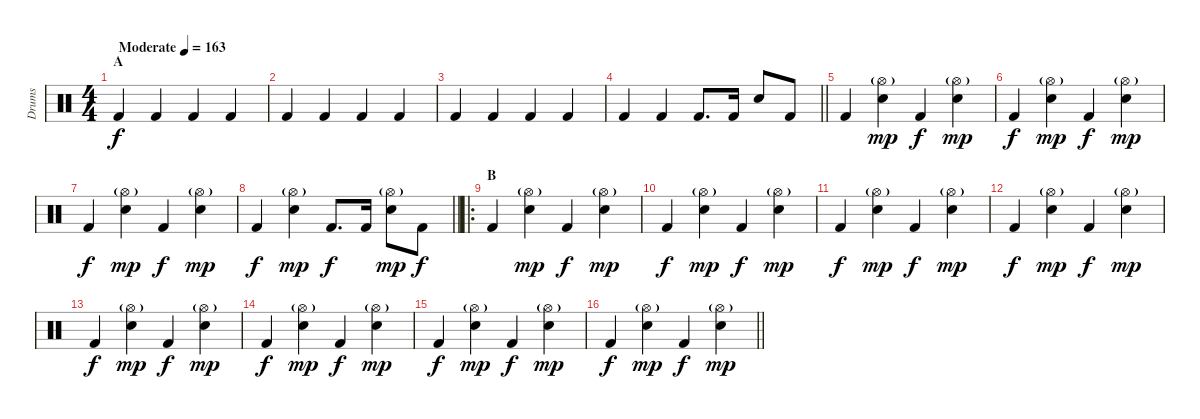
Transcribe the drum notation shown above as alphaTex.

\track ("Drums" "Drums") {instrument percussion}
\staff {score}
\articulation defaults
\ts (4 4)
\section ("" "A")
\tempo (163 "Moderate")
\clef neutral
\ks c "Kick (hit) 2".4{dy f} "Kick (hit) 2".4 "Kick (hit) 2".4 "Kick (hit) 2".4
|
"Kick (hit) 2".4 "Kick (hit) 2".4 "Kick (hit) 2".4 "Kick (hit) 2".4 |
"Kick (hit) 2".4 "Kick (hit) 2".4 "Kick (hit) 2".4 "Kick (hit) 2".4 |
\barLineRight lightlight "Kick (hit) 2".4 "Kick (hit) 2".4 "Kick (hit) 2".8{d} "Kick (hit) 2".16 "Snare (hit) 2".8 "Kick (hit) 2".8
|
\section ("" " ")
"Kick (hit) 2".4 ("Hi-Hat (open)"{g} "Snare (hit) 2").4{dy mp} "Kick (hit) 2".4{dy f} ("Hi-Hat (open)"{g} "Snare (hit) 2").4{dy mp} |
"Kick (hit) 2".4{dy f} ("Hi-Hat (open)"{g} "Snare (hit) 2").4{dy mp} "Kick (hit) 2".4{dy f} ("Hi-Hat (open)"{g} "Snare (hit) 2").4{dy mp} |
"Kick (hit) 2".4{dy f} ("Hi-Hat (open)"{g} "Snare (hit) 2").4{dy mp} "Kick (hit) 2".4{dy f} ("Hi-Hat (open)"{g} "Snare (hit) 2").4{dy mp} |
\barLineRight lightlight "Kick (hit) 2".4{dy f}
("Hi-Hat (open)"{g} "Snare (hit) 2").4{dy mp} "Kick (hit) 2".8{d dy f} "Kick (hit) 2".16 ("Hi-Hat (open)"{g} "Snare (hit) 2").8{dy mp} "Kick (hit) 2".8{dy f} |
\ro
\section ("" "B")
"Kick (hit) 2".4 ("Hi-Hat (open)"{g} "Snare (hit) 2").4{dy mp} "Kick (hit) 2".4{dy f} ("Hi-Hat (open)"{g} "Snare (hit) 2").4{dy mp} |
"Kick (hit) 2".4{dy f} ("Hi-Hat (open)"{g} "Snare (hit) 2").4{dy mp} "Kick (hit) 2".4{dy f} ("Hi-Hat (open)"{g} "Snare (hit) 2").4{dy mp} |
"Kick (hit) 2".4{dy f} ("Hi-Hat (open)"{g} "Snare (hit) 2").4{dy mp} "Kick (hit) 2".4{dy f} ("Hi-Hat (open)"{g} "Snare (hit) 2").4{dy mp} |
"Kick (hit) 2".4{dy f} ("Hi-Hat (open)"{g} "Snare (hit) 2").4{dy mp} "Kick (hit) 2".4{dy f} ("Hi-Hat (open)"{g} "Snare (hit) 2").4{dy mp} |
"Kick (hit) 2".4{dy f} ("Hi-Hat (open)"{g} "Snare (hit) 2").4{dy mp} "Kick (hit) 2".4{dy f} ("Hi-Hat (open)"{g} "Snare (hit) 2").4{dy mp} |
"Kick (hit) 2".4{dy f} ("Hi-Hat (open)"{g} "Snare (hit) 2").4{dy mp} "Kick (hit) 2".4{dy f} ("Hi-Hat (open)"{g} "Snare (hit) 2").4{dy mp} |
"Kick (hit) 2".4{dy f} ("Hi-Hat (open)"{g} "Snare (hit) 2").4{dy mp} "Kick (hit) 2".4{dy f} ("Hi-Hat (open)"{g} "Snare (hit) 2").4{dy mp} |
\barLineRight lightlight "Kick (hit) 2".4{dy f}
("Hi-Hat (open)"{g} "Snare (hit) 2").4{dy mp} "Kick (hit) 2".4{dy f} ("Hi-Hat (open)"{g} "Snare (hit) 2").4{dy mp}
